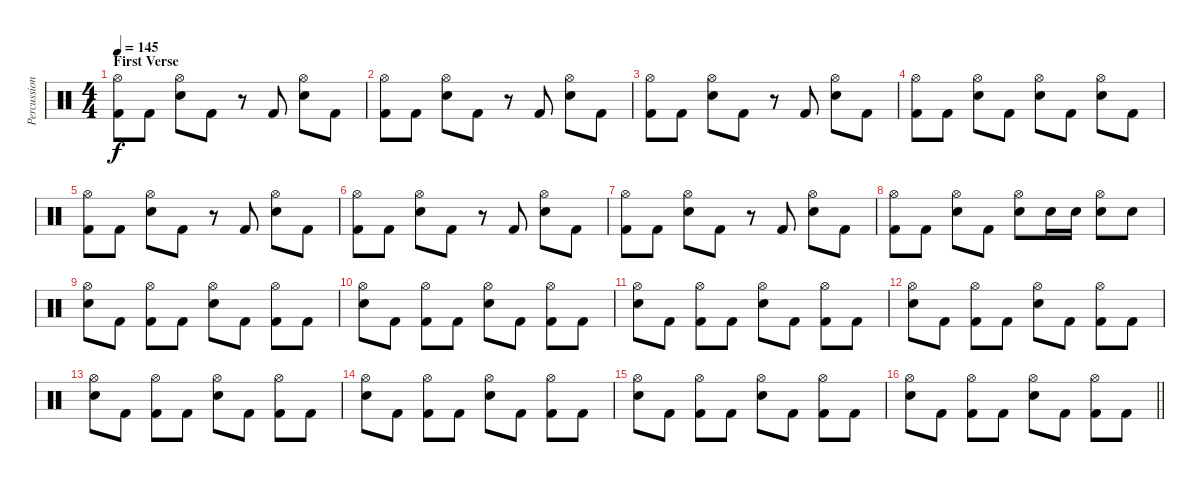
\track ("Percussion" "Percussion") {instrument percussion}
\staff {score}
\articulation defaults
\ts (4 4)
\section ("" "First Verse")
\tempo 145
\clef neutral
\ks c
("Hi-Hat (open)" "Kick (hit) 2").8{dy f} "Kick (hit) 2".8 ("Hi-Hat (open)" "Electric Snare (hit)").8 "Kick (hit) 2".8 r.8 "Kick (hit) 2".8 ("Hi-Hat (open)" "Electric Snare (hit)").8 "Kick (hit) 2".8 |
("Hi-Hat (open)" "Kick (hit) 2").8 "Kick (hit) 2".8 ("Hi-Hat (open)" "Electric Snare (hit)").8 "Kick (hit) 2".8 r.8 "Kick (hit) 2".8 ("Hi-Hat (open)" "Electric Snare (hit)").8 "Kick (hit) 2".8 |
("Hi-Hat (open)" "Kick (hit) 2").8 "Kick (hit) 2".8 ("Hi-Hat (open)" "Electric Snare (hit)").8 "Kick (hit) 2".8 r.8 "Kick (hit) 2".8 ("Hi-Hat (open)" "Electric Snare (hit)").8 "Kick (hit) 2".8 |
("Hi-Hat (open)" "Kick (hit) 2").8 "Kick (hit) 2".8 ("Hi-Hat (open)" "Electric Snare (hit)").8 "Kick (hit) 2".8 ("Hi-Hat (open)" "Electric Snare (hit)").8 "Kick (hit) 2".8 ("Hi-Hat (open)" "Electric Snare (hit)").8 "Kick (hit) 2".8 |
("Hi-Hat (open)" "Kick (hit) 2").8 "Kick (hit) 2".8 ("Hi-Hat (open)" "Electric Snare (hit)").8 "Kick (hit) 2".8 r.8 "Kick (hit) 2".8 ("Hi-Hat (open)" "Electric Snare (hit)").8 "Kick (hit) 2".8 |
("Hi-Hat (open)" "Kick (hit) 2").8 "Kick (hit) 2".8 ("Hi-Hat (open)" "Electric Snare (hit)").8 "Kick (hit) 2".8 r.8 "Kick (hit) 2".8 ("Hi-Hat (open)" "Electric Snare (hit)").8 "Kick (hit) 2".8 |
("Hi-Hat (open)" "Kick (hit) 2").8 "Kick (hit) 2".8 ("Hi-Hat (open)" "Electric Snare (hit)").8 "Kick (hit) 2".8 r.8 "Kick (hit) 2".8 ("Hi-Hat (open)" "Electric Snare (hit)").8 "Kick (hit) 2".8 |
("Hi-Hat (open)" "Kick (hit) 2").8 "Kick (hit) 2".8 ("Hi-Hat (open)" "Electric Snare (hit)").8 "Kick (hit) 2".8 ("Hi-Hat (open)" "Electric Snare (hit)").8 "Electric Snare (hit)".16 "Electric Snare (hit)".16 ("Hi-Hat (open)" "Electric Snare (hit)").8 "Electric Snare (hit)".8 |
("Hi-Hat (open)" "Electric Snare (hit)").8 "Kick (hit) 2".8 ("Hi-Hat (open)" "Kick (hit) 2").8 "Kick (hit) 2".8 ("Hi-Hat (open)" "Electric Snare (hit)").8 "Kick (hit) 2".8 ("Hi-Hat (open)" "Kick (hit) 2").8 "Kick (hit) 2".8 |
("Hi-Hat (open)" "Electric Snare (hit)").8 "Kick (hit) 2".8 ("Hi-Hat (open)" "Kick (hit) 2").8 "Kick (hit) 2".8 ("Hi-Hat (open)" "Electric Snare (hit)").8 "Kick (hit) 2".8 ("Hi-Hat (open)" "Kick (hit) 2").8 "Kick (hit) 2".8 |
("Hi-Hat (open)" "Electric Snare (hit)").8 "Kick (hit) 2".8 ("Hi-Hat (open)" "Kick (hit) 2").8 "Kick (hit) 2".8 ("Hi-Hat (open)" "Electric Snare (hit)").8 "Kick (hit) 2".8 ("Hi-Hat (open)" "Kick (hit) 2").8 "Kick (hit) 2".8 |
("Hi-Hat (open)" "Electric Snare (hit)").8 "Kick (hit) 2".8 ("Hi-Hat (open)" "Kick (hit) 2").8 "Kick (hit) 2".8 ("Hi-Hat (open)" "Electric Snare (hit)").8 "Kick (hit) 2".8 ("Hi-Hat (open)" "Kick (hit) 2").8 "Kick (hit) 2".8 |
("Hi-Hat (open)" "Electric Snare (hit)").8 "Kick (hit) 2".8 ("Hi-Hat (open)" "Kick (hit) 2").8 "Kick (hit) 2".8 ("Hi-Hat (open)" "Electric Snare (hit)").8 "Kick (hit) 2".8 ("Hi-Hat (open)" "Kick (hit) 2").8 "Kick (hit) 2".8 |
("Hi-Hat (open)" "Electric Snare (hit)").8 "Kick (hit) 2".8 ("Hi-Hat (open)" "Kick (hit) 2").8 "Kick (hit) 2".8 ("Hi-Hat (open)" "Electric Snare (hit)").8 "Kick (hit) 2".8 ("Hi-Hat (open)" "Kick (hit) 2").8 "Kick (hit) 2".8 |
("Hi-Hat (open)" "Electric Snare (hit)").8 "Kick (hit) 2".8 ("Hi-Hat (open)" "Kick (hit) 2").8 "Kick (hit) 2".8 ("Hi-Hat (open)" "Electric Snare (hit)").8 "Kick (hit) 2".8 ("Hi-Hat (open)" "Kick (hit) 2").8 "Kick (hit) 2".8 |
\barLineRight lightlight
("Hi-Hat (open)" "Electric Snare (hit)").8 "Kick (hit) 2".8 ("Hi-Hat (open)" "Kick (hit) 2").8 "Kick (hit) 2".8 ("Hi-Hat (open)" "Electric Snare (hit)").8 "Kick (hit) 2".8 ("Hi-Hat (open)" "Kick (hit) 2").8 "Kick (hit) 2".8
